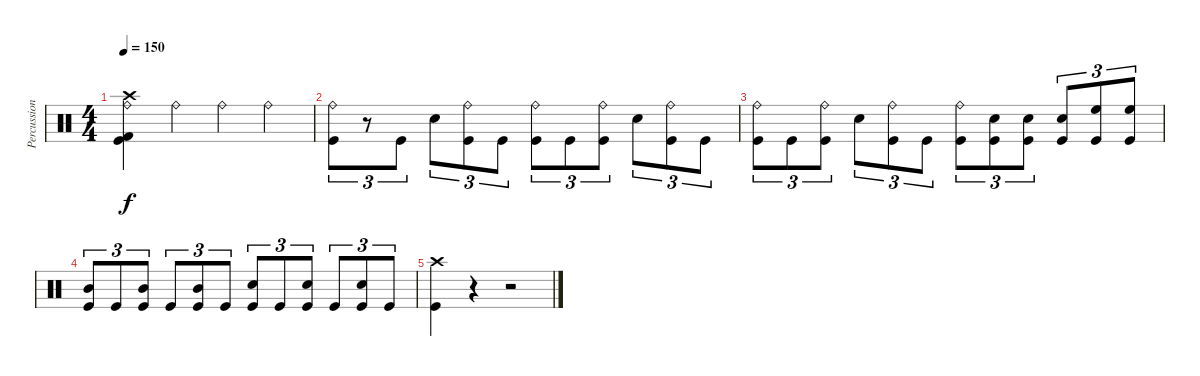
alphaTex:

\track ("Percussion" "Percussion") {instrument percussion}
\staff {score}
\articulation defaults
\ts (4 4)
\tempo 150
\clef neutral
\ks c
("Ride (bell)" "Crash high (hit)" "Kick (hit) 2" "Kick (hit)").4{dy f} "Ride (bell)".4 "Ride (bell)".4 "Ride (bell)".4 |
("Ride (bell)" "Kick (hit)").8{tu (3 2)} r.8{tu (3 2)} "Kick (hit)".8{tu (3 2)} "Snare (hit) 2".8{tu (3 2)} ("Ride (bell)" "Kick (hit)").8{tu (3 2)} "Kick (hit)".8{tu (3 2)} ("Ride (bell)" "Kick (hit)").8{tu (3 2)} "Kick (hit)".8{tu (3 2)} ("Ride (bell)" "Kick (hit)").8{tu (3 2)} "Snare (hit) 2".8{tu (3 2)} ("Ride (bell)" "Kick (hit)").8{tu (3 2)} "Kick (hit)".8{tu (3 2)} |
("Ride (bell)" "Kick (hit)").8{tu (3 2)} "Kick (hit)".8{tu (3 2)} ("Ride (bell)" "Kick (hit)").8{tu (3 2)} "Snare (hit) 2".8{tu (3 2)} ("Ride (bell)" "Kick (hit)").8{tu (3 2)} "Kick (hit)".8{tu (3 2)} ("Ride (bell)" "Kick (hit)").8{tu (3 2)} ("Snare (hit) 2" "Kick (hit)").8{tu (3 2)} ("Snare (hit) 2" "Kick (hit)").8{tu (3 2)} ("Snare (hit) 2" "Kick (hit)").8{tu (3 2)} ("High Floor Tom (hit)" "Kick (hit)").8{tu (3 2)} ("High Floor Tom (hit)" "Kick (hit)").8{tu (3 2)} |
("Mid Tom (hit)" "Kick (hit)").8{tu (3 2)} "Kick (hit)".8{tu (3 2)} ("Mid Tom (hit)" "Kick (hit)").8{tu (3 2)} "Kick (hit)".8{tu (3 2)} ("Mid Tom (hit)" "Kick (hit)").8{tu (3 2)} "Kick (hit)".8{tu (3 2)} ("Snare (hit) 2" "Kick (hit)").8{tu (3 2)} "Kick (hit)".8{tu (3 2)} ("Snare (hit) 2" "Kick (hit)").8{tu (3 2)} "Kick (hit)".8{tu (3 2)} ("Snare (hit) 2" "Kick (hit)").8{tu (3 2)} "Kick (hit)".8{tu (3 2)} |
("Crash high (hit)" "Kick (hit)").4 r.4 r.2
